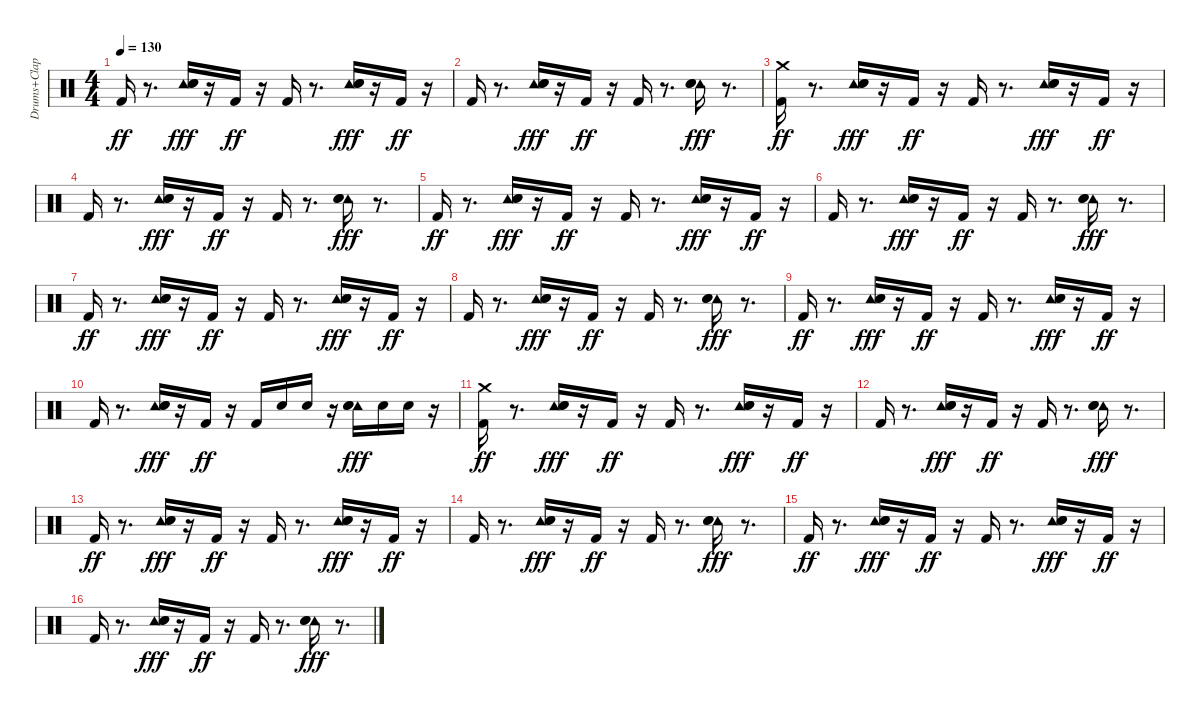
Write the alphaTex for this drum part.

\track ("Drums+Clap" "Drums+Clap") {instrument percussion}
\staff {score}
\articulation defaults
\ts (4 4)
\tempo 130
\clef neutral
\ks c "Kick (hit) 2".16{dy ff}
r.8{d} ("Tambourine (hit)" "Electric Snare (hit)" "Hand Clap (hit)").16{dy fff} r.16 "Kick (hit) 2".16{dy ff} r.16 "Kick (hit) 2".16 r.8{d} ("Tambourine (hit)" "Electric Snare (hit)" "Hand Clap (hit)").16{dy fff} r.16 "Kick (hit) 2".16{dy ff} r.16 |
"Kick (hit) 2".16 r.8{d} ("Tambourine (hit)" "Electric Snare (hit)" "Hand Clap (hit)").16{dy fff} r.16 "Kick (hit) 2".16{dy ff} r.16 "Kick (hit) 2".16 r.8{d} ("Tambourine (hit)" "Electric Snare (hit)" "Hand Clap (hit)").16{dy fff} r.8{d} |
("Crash medium (hit)" "Kick (hit) 2").16{dy ff} r.8{d} ("Tambourine (hit)" "Electric Snare (hit)" "Hand Clap (hit)").16{dy fff} r.16 "Kick (hit) 2".16{dy ff} r.16 "Kick (hit) 2".16 r.8{d} ("Tambourine (hit)" "Electric Snare (hit)" "Hand Clap (hit)").16{dy fff} r.16 "Kick (hit) 2".16{dy ff} r.16 |
"Kick (hit) 2".16 r.8{d} ("Tambourine (hit)" "Electric Snare (hit)" "Hand Clap (hit)").16{dy fff} r.16 "Kick (hit) 2".16{dy ff} r.16 "Kick (hit) 2".16 r.8{d} ("Tambourine (hit)" "Electric Snare (hit)" "Hand Clap (hit)").16{dy fff} r.8{d} |
"Kick (hit) 2".16{dy ff} r.8{d} ("Tambourine (hit)" "Electric Snare (hit)" "Hand Clap (hit)").16{dy fff} r.16 "Kick (hit) 2".16{dy ff} r.16 "Kick (hit) 2".16 r.8{d} ("Tambourine (hit)" "Electric Snare (hit)" "Hand Clap (hit)").16{dy fff} r.16 "Kick (hit) 2".16{dy ff} r.16 |
"Kick (hit) 2".16 r.8{d} ("Tambourine (hit)" "Electric Snare (hit)" "Hand Clap (hit)").16{dy fff} r.16 "Kick (hit) 2".16{dy ff} r.16 "Kick (hit) 2".16 r.8{d} ("Tambourine (hit)" "Electric Snare (hit)" "Hand Clap (hit)").16{dy fff} r.8{d} |
"Kick (hit) 2".16{dy ff} r.8{d} ("Tambourine (hit)" "Electric Snare (hit)" "Hand Clap (hit)").16{dy fff} r.16 "Kick (hit) 2".16{dy ff} r.16 "Kick (hit) 2".16 r.8{d} ("Tambourine (hit)" "Electric Snare (hit)" "Hand Clap (hit)").16{dy fff} r.16 "Kick (hit) 2".16{dy ff} r.16 |
"Kick (hit) 2".16 r.8{d} ("Tambourine (hit)" "Electric Snare (hit)" "Hand Clap (hit)").16{dy fff} r.16 "Kick (hit) 2".16{dy ff} r.16 "Kick (hit) 2".16 r.8{d} ("Tambourine (hit)" "Electric Snare (hit)" "Hand Clap (hit)").16{dy fff} r.8{d} |
"Kick (hit) 2".16{dy ff} r.8{d} ("Tambourine (hit)" "Electric Snare (hit)" "Hand Clap (hit)").16{dy fff} r.16 "Kick (hit) 2".16{dy ff} r.16 "Kick (hit) 2".16 r.8{d} ("Tambourine (hit)" "Electric Snare (hit)" "Hand Clap (hit)").16{dy fff} r.16 "Kick (hit) 2".16{dy ff} r.16 |
"Kick (hit) 2".16 r.8{d} ("Tambourine (hit)" "Electric Snare (hit)" "Hand Clap (hit)").16{dy fff} r.16 "Kick (hit) 2".16{dy ff} r.16 "Kick (hit) 2".16 "Electric Snare (hit)".16 "Electric Snare (hit)".16 r.16 ("Tambourine (hit)" "Electric Snare (hit)" "Hand Clap (hit)").16{dy fff} "Electric Snare (hit)".16 "Electric Snare (hit)".16 r.16 |
("Crash medium (hit)" "Kick (hit) 2").16{dy ff} r.8{d} ("Tambourine (hit)" "Electric Snare (hit)" "Hand Clap (hit)").16{dy fff} r.16 "Kick (hit) 2".16{dy ff} r.16 "Kick (hit) 2".16 r.8{d} ("Tambourine (hit)" "Electric Snare (hit)" "Hand Clap (hit)").16{dy fff} r.16 "Kick (hit) 2".16{dy ff} r.16 |
"Kick (hit) 2".16 r.8{d} ("Tambourine (hit)" "Electric Snare (hit)" "Hand Clap (hit)").16{dy fff} r.16 "Kick (hit) 2".16{dy ff} r.16 "Kick (hit) 2".16 r.8{d} ("Tambourine (hit)" "Electric Snare (hit)" "Hand Clap (hit)").16{dy fff} r.8{d} |
"Kick (hit) 2".16{dy ff} r.8{d} ("Tambourine (hit)" "Electric Snare (hit)" "Hand Clap (hit)").16{dy fff} r.16 "Kick (hit) 2".16{dy ff} r.16 "Kick (hit) 2".16 r.8{d} ("Tambourine (hit)" "Electric Snare (hit)" "Hand Clap (hit)").16{dy fff} r.16 "Kick (hit) 2".16{dy ff} r.16 |
"Kick (hit) 2".16 r.8{d} ("Tambourine (hit)" "Electric Snare (hit)" "Hand Clap (hit)").16{dy fff} r.16 "Kick (hit) 2".16{dy ff} r.16 "Kick (hit) 2".16 r.8{d} ("Tambourine (hit)" "Electric Snare (hit)" "Hand Clap (hit)").16{dy fff} r.8{d} |
"Kick (hit) 2".16{dy ff} r.8{d} ("Tambourine (hit)" "Electric Snare (hit)" "Hand Clap (hit)").16{dy fff} r.16 "Kick (hit) 2".16{dy ff} r.16 "Kick (hit) 2".16 r.8{d} ("Tambourine (hit)" "Electric Snare (hit)" "Hand Clap (hit)").16{dy fff} r.16 "Kick (hit) 2".16{dy ff} r.16 |
"Kick (hit) 2".16 r.8{d} ("Tambourine (hit)" "Electric Snare (hit)" "Hand Clap (hit)").16{dy fff} r.16 "Kick (hit) 2".16{dy ff} r.16 "Kick (hit) 2".16 r.8{d} ("Tambourine (hit)" "Electric Snare (hit)" "Hand Clap (hit)").16{dy fff} r.8{d}
